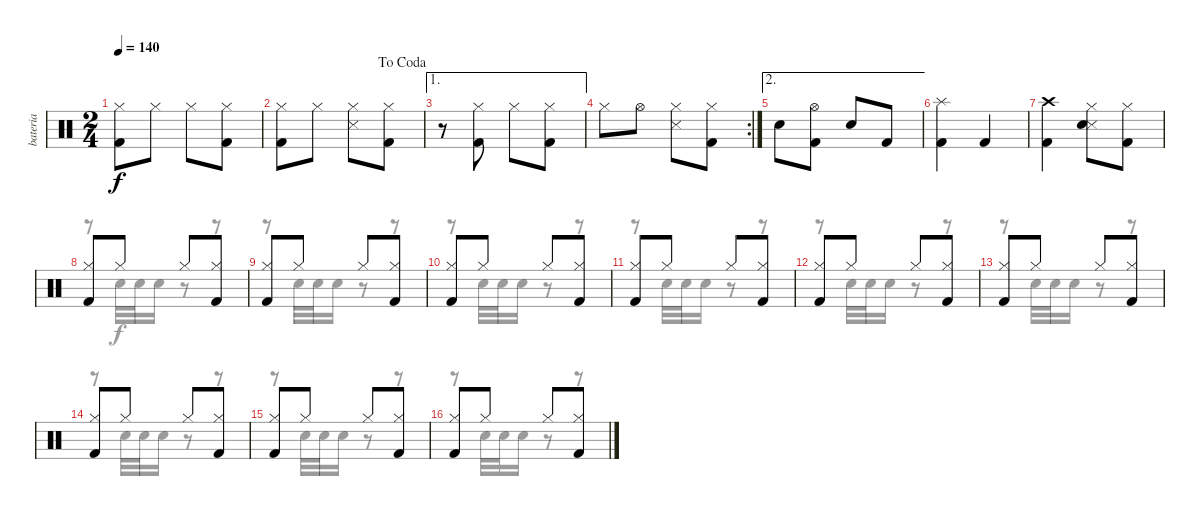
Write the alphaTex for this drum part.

\track ("bateria" "bateria") {instrument percussion}
\staff {score}
\articulation defaults
\voice
\ts (2 4)
\tempo 140
\clef neutral
\ks c
("Hi-Hat (closed)" "Kick (hit) 2").8{dy f} "Hi-Hat (closed)".8 "Hi-Hat (closed)".8 ("Hi-Hat (closed)" "Kick (hit) 2").8 |
\jump dacoda
("Hi-Hat (closed)" "Kick (hit) 2").8 "Hi-Hat (closed)".8 ("Hi-Hat (closed)" "Snare (side stick) 3").8 ("Hi-Hat (closed)" "Kick (hit) 2").8 |
\ae 1
r.8 ("Hi-Hat (closed)" "Kick (hit) 2").8 "Hi-Hat (closed)".8 ("Hi-Hat (closed)" "Kick (hit) 2").8 |
\rc 2 "Hi-Hat (closed)".8 "Hi-Hat (open)".8
("Hi-Hat (closed)" "Snare (side stick) 3").8 ("Hi-Hat (closed)" "Kick (hit) 2").8 |
\ae 2 "Snare (hit) 2".8
("Hi-Hat (open)" "Kick (hit) 2").8 "Snare (hit) 2".8 "Kick (hit) 2".8 |
("Splash (hit)" "Kick (hit) 2").4 "Kick (hit) 2".4 |
("Crash high (hit)" "Kick (hit) 2").4{volume 11} ("Hi-Hat (closed)" "Snare (side stick) 3" "Snare (hit)").8 ("Hi-Hat (closed)" "Kick (hit) 2").8 |
("Hi-Hat (closed)" "Kick (hit) 2").8 "Hi-Hat (closed)".8 "Hi-Hat (closed)".8 ("Hi-Hat (closed)" "Kick (hit) 2").8 |
("Hi-Hat (closed)" "Kick (hit) 2").8 "Hi-Hat (closed)".8 "Hi-Hat (closed)".8 ("Hi-Hat (closed)" "Kick (hit) 2").8 |
("Hi-Hat (closed)" "Kick (hit) 2").8 "Hi-Hat (closed)".8 "Hi-Hat (closed)".8 ("Hi-Hat (closed)" "Kick (hit) 2").8 |
("Hi-Hat (closed)" "Kick (hit) 2").8 "Hi-Hat (closed)".8 "Hi-Hat (closed)".8 ("Hi-Hat (closed)" "Kick (hit) 2").8 |
("Hi-Hat (closed)" "Kick (hit) 2").8 "Hi-Hat (closed)".8 "Hi-Hat (closed)".8 ("Hi-Hat (closed)" "Kick (hit) 2").8 |
("Hi-Hat (closed)" "Kick (hit) 2").8 "Hi-Hat (closed)".8 "Hi-Hat (closed)".8 ("Hi-Hat (closed)" "Kick (hit) 2").8 |
("Hi-Hat (closed)" "Kick (hit) 2").8 "Hi-Hat (closed)".8 "Hi-Hat (closed)".8 ("Hi-Hat (closed)" "Kick (hit) 2").8 |
("Hi-Hat (closed)" "Kick (hit) 2").8 "Hi-Hat (closed)".8 "Hi-Hat (closed)".8 ("Hi-Hat (closed)" "Kick (hit) 2").8 |
("Hi-Hat (closed)" "Kick (hit) 2").8 "Hi-Hat (closed)".8 "Hi-Hat (closed)".8 ("Hi-Hat (closed)" "Kick (hit) 2").8
\voice
\clef neutral
\ottava regular
\simile none
\ks c
|
|
|
|
|
|
|
r.8 "Snare (hit) 2".32 "Snare (hit) 2".32 "Snare (hit) 2".16 r.8 r.8 |
r.8 "Snare (hit) 2".32 "Snare (hit) 2".32 "Snare (hit) 2".16 r.8 r.8 |
r.8 "Snare (hit) 2".32 "Snare (hit) 2".32 "Snare (hit) 2".16 r.8 r.8 |
r.8 "Snare (hit) 2".32 "Snare (hit) 2".32 "Snare (hit) 2".16 r.8 r.8 |
r.8 "Snare (hit) 2".32 "Snare (hit) 2".32 "Snare (hit) 2".16 r.8 r.8 |
r.8 "Snare (hit) 2".32 "Snare (hit) 2".32 "Snare (hit) 2".16 r.8 r.8 |
r.8 "Snare (hit) 2".32 "Snare (hit) 2".32 "Snare (hit) 2".16 r.8 r.8 |
r.8 "Snare (hit) 2".32 "Snare (hit) 2".32 "Snare (hit) 2".16 r.8 r.8 |
r.8 "Snare (hit) 2".32 "Snare (hit) 2".32 "Snare (hit) 2".16 r.8 r.8
